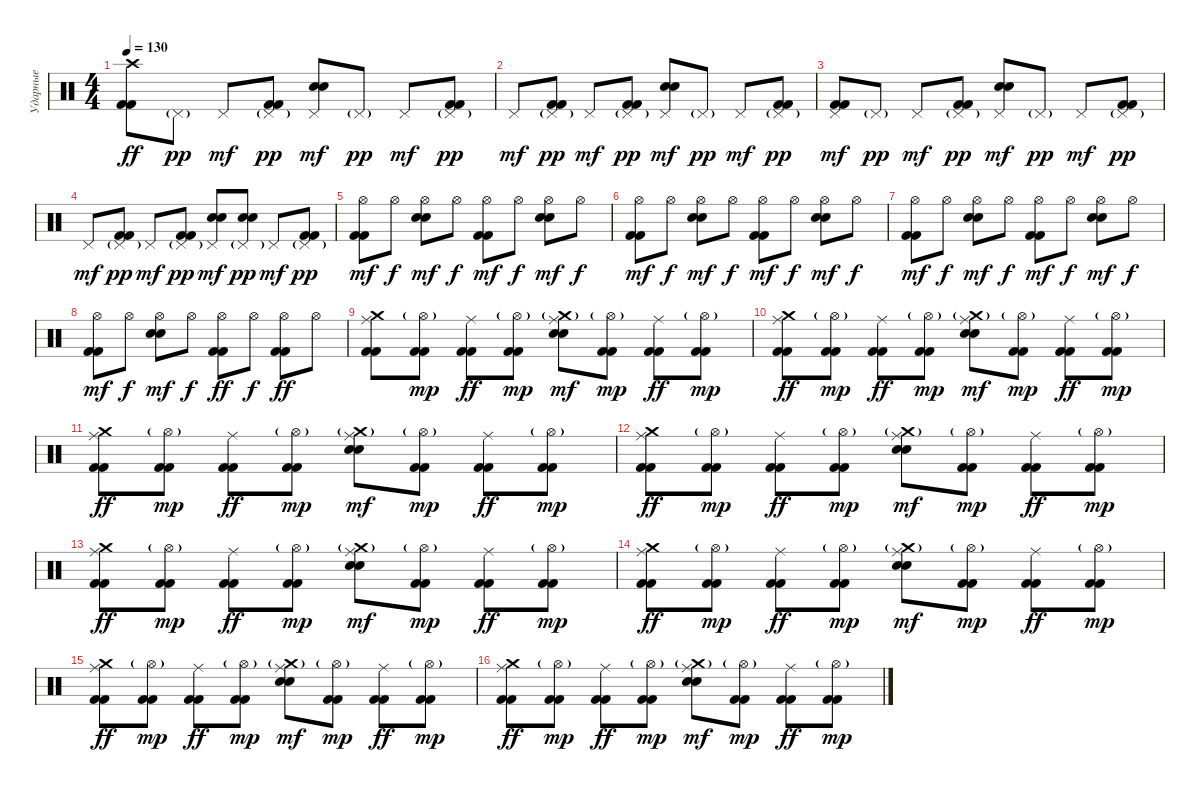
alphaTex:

\track ("Ударные" "Ударные") {instrument percussion}
\staff {score}
\articulation defaults
\ts (4 4)
\tempo 130
\clef neutral
\ks c
("Kick (hit) 2" "Kick (hit) 2" "Crash high (hit)").8{dy ff} "Pedal Hi-Hat (hit)"{g}.8{dy pp} "Pedal Hi-Hat (hit)".8{dy mf} ("Kick (hit) 2" "Kick (hit) 2" "Pedal Hi-Hat (hit)"{g}).8{dy pp} ("Electric Snare (hit)" "Snare (hit) 2" "Pedal Hi-Hat (hit)").8{dy mf} "Pedal Hi-Hat (hit)"{g}.8{dy pp} "Pedal Hi-Hat (hit)".8{dy mf} ("Kick (hit) 2" "Kick (hit) 2" "Pedal Hi-Hat (hit)"{g}).8{dy pp} |
"Pedal Hi-Hat (hit)".8{dy mf} ("Kick (hit) 2" "Kick (hit) 2" "Pedal Hi-Hat (hit)"{g}).8{dy pp} "Pedal Hi-Hat (hit)".8{dy mf} ("Kick (hit) 2" "Kick (hit) 2" "Pedal Hi-Hat (hit)"{g}).8{dy pp} ("Electric Snare (hit)" "Snare (hit) 2" "Pedal Hi-Hat (hit)").8{dy mf} "Pedal Hi-Hat (hit)"{g}.8{dy pp} "Pedal Hi-Hat (hit)".8{dy mf} ("Kick (hit) 2" "Kick (hit) 2" "Pedal Hi-Hat (hit)"{g}).8{dy pp} |
("Kick (hit) 2" "Kick (hit) 2" "Pedal Hi-Hat (hit)").8{dy mf} "Pedal Hi-Hat (hit)"{g}.8{dy pp} "Pedal Hi-Hat (hit)".8{dy mf} ("Kick (hit) 2" "Kick (hit) 2" "Pedal Hi-Hat (hit)"{g}).8{dy pp} ("Electric Snare (hit)" "Snare (hit) 2" "Pedal Hi-Hat (hit)").8{dy mf} "Pedal Hi-Hat (hit)"{g}.8{dy pp} "Pedal Hi-Hat (hit)".8{dy mf} ("Kick (hit) 2" "Kick (hit) 2" "Pedal Hi-Hat (hit)"{g}).8{dy pp} |
"Pedal Hi-Hat (hit)".8{dy mf} ("Kick (hit) 2" "Kick (hit) 2" "Pedal Hi-Hat (hit)"{g}).8{dy pp} "Pedal Hi-Hat (hit)".8{dy mf} ("Kick (hit) 2" "Kick (hit) 2" "Pedal Hi-Hat (hit)"{g}).8{dy pp} ("Electric Snare (hit)" "Snare (hit) 2" "Pedal Hi-Hat (hit)").8{dy mf} ("Electric Snare (hit)" "Snare (hit) 2" "Pedal Hi-Hat (hit)"{g}).8{dy pp} "Pedal Hi-Hat (hit)".8{dy mf} ("Kick (hit) 2" "Kick (hit) 2" "Pedal Hi-Hat (hit)"{g}).8{dy pp} |
("Kick (hit) 2" "Kick (hit) 2" "Hi-Hat (open)").8{dy mf} "Hi-Hat (open)".8{dy f} ("Electric Snare (hit)" "Snare (hit) 2" "Hi-Hat (open)").8{dy mf} "Hi-Hat (open)".8{dy f} ("Kick (hit) 2" "Kick (hit) 2" "Hi-Hat (open)").8{dy mf} "Hi-Hat (open)".8{dy f} ("Electric Snare (hit)" "Snare (hit) 2" "Hi-Hat (open)").8{dy mf} "Hi-Hat (open)".8{dy f} |
("Kick (hit) 2" "Kick (hit) 2" "Hi-Hat (open)").8{dy mf} "Hi-Hat (open)".8{dy f} ("Electric Snare (hit)" "Snare (hit) 2" "Hi-Hat (open)").8{dy mf} "Hi-Hat (open)".8{dy f} ("Kick (hit) 2" "Kick (hit) 2" "Hi-Hat (open)").8{dy mf} "Hi-Hat (open)".8{dy f} ("Electric Snare (hit)" "Snare (hit) 2" "Hi-Hat (open)").8{dy mf} "Hi-Hat (open)".8{dy f} |
("Kick (hit) 2" "Kick (hit) 2" "Hi-Hat (open)").8{dy mf} "Hi-Hat (open)".8{dy f} ("Electric Snare (hit)" "Snare (hit) 2" "Hi-Hat (open)").8{dy mf} "Hi-Hat (open)".8{dy f} ("Kick (hit) 2" "Kick (hit) 2" "Hi-Hat (open)").8{dy mf} "Hi-Hat (open)".8{dy f} ("Electric Snare (hit)" "Snare (hit) 2" "Hi-Hat (open)").8{dy mf} "Hi-Hat (open)".8{dy f} |
("Kick (hit) 2" "Kick (hit) 2" "Hi-Hat (open)").8{dy mf} "Hi-Hat (open)".8{dy f} ("Electric Snare (hit)" "Snare (hit) 2" "Hi-Hat (open)").8{dy mf} "Hi-Hat (open)".8{dy f} ("Kick (hit) 2" "Kick (hit) 2" "Hi-Hat (open)").8{dy ff} "Hi-Hat (open)".8{dy f} ("Kick (hit) 2" "Kick (hit) 2" "Hi-Hat (open)").8{dy ff} "Hi-Hat (open)".8 |
("Kick (hit) 2" "Kick (hit) 2" "Ride (middle)" "Crash medium (hit)").8 ("Kick (hit) 2" "Kick (hit) 2" "Hi-Hat (open)"{g}).8{dy mp} ("Kick (hit) 2" "Kick (hit) 2" "Ride (middle)").8{dy ff} ("Kick (hit) 2" "Kick (hit) 2" "Hi-Hat (open)"{g}).8{dy mp} ("Electric Snare (hit)" "Snare (hit) 2" "Ride (middle)" "Crash medium (hit)"{g}).8{dy mf} ("Kick (hit) 2" "Kick (hit) 2" "Hi-Hat (open)"{g}).8{dy mp} ("Kick (hit) 2" "Kick (hit) 2" "Ride (middle)").8{dy ff} ("Kick (hit) 2" "Kick (hit) 2" "Hi-Hat (open)"{g}).8{dy mp} |
("Kick (hit) 2" "Kick (hit) 2" "Ride (middle)" "Crash medium (hit)").8{dy ff} ("Kick (hit) 2" "Kick (hit) 2" "Hi-Hat (open)"{g}).8{dy mp} ("Kick (hit) 2" "Kick (hit) 2" "Ride (middle)").8{dy ff} ("Kick (hit) 2" "Kick (hit) 2" "Hi-Hat (open)"{g}).8{dy mp} ("Electric Snare (hit)" "Snare (hit) 2" "Ride (middle)" "Crash medium (hit)"{g}).8{dy mf} ("Kick (hit) 2" "Kick (hit) 2" "Hi-Hat (open)"{g}).8{dy mp} ("Kick (hit) 2" "Kick (hit) 2" "Ride (middle)").8{dy ff} ("Kick (hit) 2" "Kick (hit) 2" "Hi-Hat (open)"{g}).8{dy mp} |
("Kick (hit) 2" "Kick (hit) 2" "Ride (middle)" "Crash medium (hit)").8{dy ff} ("Kick (hit) 2" "Kick (hit) 2" "Hi-Hat (open)"{g}).8{dy mp} ("Kick (hit) 2" "Kick (hit) 2" "Ride (middle)").8{dy ff} ("Kick (hit) 2" "Kick (hit) 2" "Hi-Hat (open)"{g}).8{dy mp} ("Electric Snare (hit)" "Snare (hit) 2" "Ride (middle)" "Crash medium (hit)"{g}).8{dy mf} ("Kick (hit) 2" "Kick (hit) 2" "Hi-Hat (open)"{g}).8{dy mp} ("Kick (hit) 2" "Kick (hit) 2" "Ride (middle)").8{dy ff} ("Kick (hit) 2" "Kick (hit) 2" "Hi-Hat (open)"{g}).8{dy mp} |
("Kick (hit) 2" "Kick (hit) 2" "Ride (middle)" "Crash medium (hit)").8{dy ff} ("Kick (hit) 2" "Kick (hit) 2" "Hi-Hat (open)"{g}).8{dy mp} ("Kick (hit) 2" "Kick (hit) 2" "Ride (middle)").8{dy ff} ("Kick (hit) 2" "Kick (hit) 2" "Hi-Hat (open)"{g}).8{dy mp} ("Electric Snare (hit)" "Snare (hit) 2" "Ride (middle)" "Crash medium (hit)"{g}).8{dy mf} ("Kick (hit) 2" "Kick (hit) 2" "Hi-Hat (open)"{g}).8{dy mp} ("Kick (hit) 2" "Kick (hit) 2" "Ride (middle)").8{dy ff} ("Kick (hit) 2" "Kick (hit) 2" "Hi-Hat (open)"{g}).8{dy mp} |
("Kick (hit) 2" "Kick (hit) 2" "Ride (middle)" "Crash medium (hit)").8{dy ff} ("Kick (hit) 2" "Kick (hit) 2" "Hi-Hat (open)"{g}).8{dy mp} ("Kick (hit) 2" "Kick (hit) 2" "Ride (middle)").8{dy ff} ("Kick (hit) 2" "Kick (hit) 2" "Hi-Hat (open)"{g}).8{dy mp} ("Electric Snare (hit)" "Snare (hit) 2" "Ride (middle)" "Crash medium (hit)"{g}).8{dy mf} ("Kick (hit) 2" "Kick (hit) 2" "Hi-Hat (open)"{g}).8{dy mp} ("Kick (hit) 2" "Kick (hit) 2" "Ride (middle)").8{dy ff} ("Kick (hit) 2" "Kick (hit) 2" "Hi-Hat (open)"{g}).8{dy mp} |
("Kick (hit) 2" "Kick (hit) 2" "Ride (middle)" "Crash medium (hit)").8{dy ff} ("Kick (hit) 2" "Kick (hit) 2" "Hi-Hat (open)"{g}).8{dy mp} ("Kick (hit) 2" "Kick (hit) 2" "Ride (middle)").8{dy ff} ("Kick (hit) 2" "Kick (hit) 2" "Hi-Hat (open)"{g}).8{dy mp} ("Electric Snare (hit)" "Snare (hit) 2" "Ride (middle)" "Crash medium (hit)"{g}).8{dy mf} ("Kick (hit) 2" "Kick (hit) 2" "Hi-Hat (open)"{g}).8{dy mp} ("Kick (hit) 2" "Kick (hit) 2" "Ride (middle)").8{dy ff} ("Kick (hit) 2" "Kick (hit) 2" "Hi-Hat (open)"{g}).8{dy mp} |
("Kick (hit) 2" "Kick (hit) 2" "Ride (middle)" "Crash medium (hit)").8{dy ff} ("Kick (hit) 2" "Kick (hit) 2" "Hi-Hat (open)"{g}).8{dy mp} ("Kick (hit) 2" "Kick (hit) 2" "Ride (middle)").8{dy ff} ("Kick (hit) 2" "Kick (hit) 2" "Hi-Hat (open)"{g}).8{dy mp} ("Electric Snare (hit)" "Snare (hit) 2" "Ride (middle)" "Crash medium (hit)"{g}).8{dy mf} ("Kick (hit) 2" "Kick (hit) 2" "Hi-Hat (open)"{g}).8{dy mp} ("Kick (hit) 2" "Kick (hit) 2" "Ride (middle)").8{dy ff} ("Kick (hit) 2" "Kick (hit) 2" "Hi-Hat (open)"{g}).8{dy mp} |
("Kick (hit) 2" "Kick (hit) 2" "Ride (middle)" "Crash medium (hit)").8{dy ff} ("Kick (hit) 2" "Kick (hit) 2" "Hi-Hat (open)"{g}).8{dy mp} ("Kick (hit) 2" "Kick (hit) 2" "Ride (middle)").8{dy ff} ("Kick (hit) 2" "Kick (hit) 2" "Hi-Hat (open)"{g}).8{dy mp} ("Electric Snare (hit)" "Snare (hit) 2" "Ride (middle)" "Crash medium (hit)"{g}).8{dy mf} ("Kick (hit) 2" "Kick (hit) 2" "Hi-Hat (open)"{g}).8{dy mp} ("Kick (hit) 2" "Kick (hit) 2" "Ride (middle)").8{dy ff} ("Kick (hit) 2" "Kick (hit) 2" "Hi-Hat (open)"{g}).8{dy mp}
